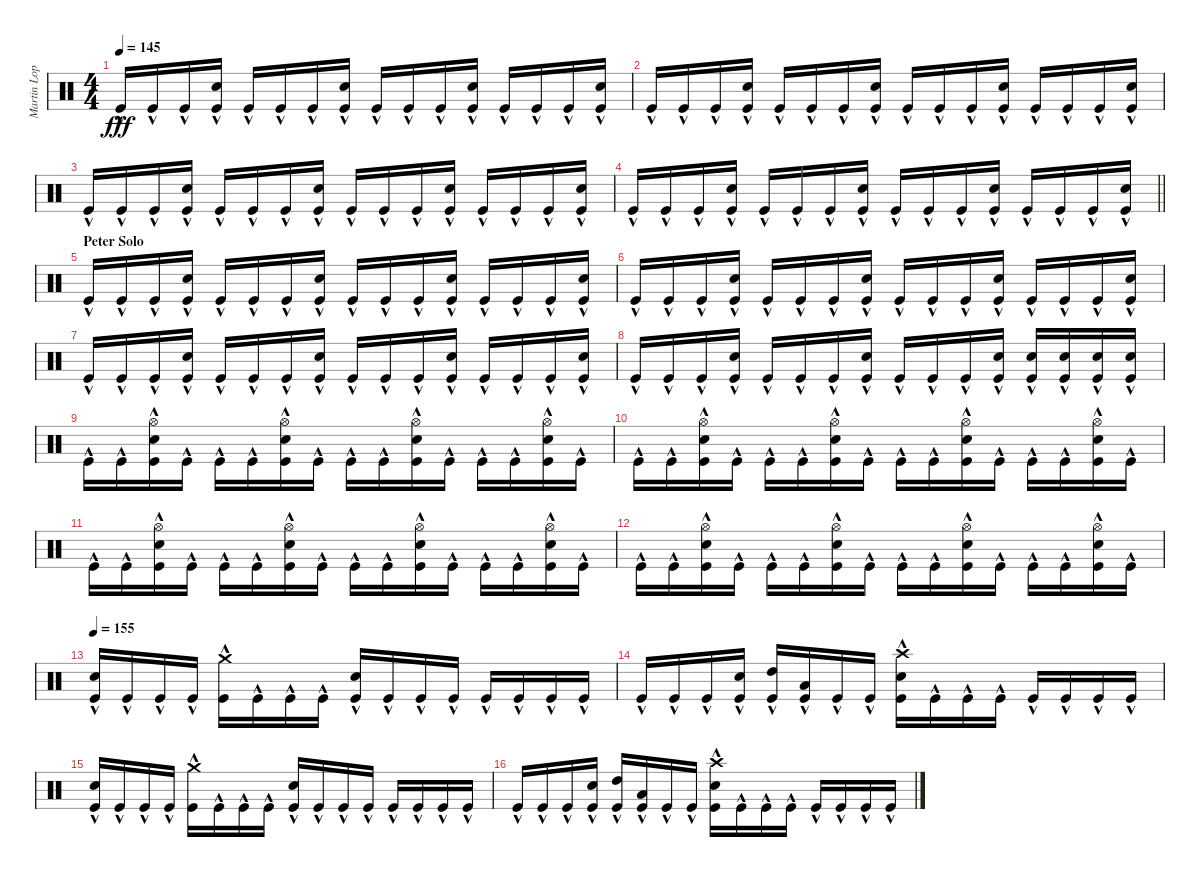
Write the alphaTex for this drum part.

\track ("Martin Lopez" "Martin Lop") {instrument percussion}
\staff {score}
\articulation defaults
\ts (4 4)
\tempo 145
\clef neutral
\ks c "Kick (hit)"{hac}.16{dy fff} "Kick (hit)"{hac}.16 "Kick (hit)"{hac}.16
("Electric Snare (hit)" "Kick (hit)"{hac}).16 "Kick (hit)"{hac}.16 "Kick (hit)"{hac}.16 "Kick (hit)"{hac}.16 ("Electric Snare (hit)" "Kick (hit)"{hac}).16 "Kick (hit)"{hac}.16 "Kick (hit)"{hac}.16 "Kick (hit)"{hac}.16 ("Electric Snare (hit)" "Kick (hit)"{hac}).16 "Kick (hit)"{hac}.16 "Kick (hit)"{hac}.16 "Kick (hit)"{hac}.16 ("Electric Snare (hit)" "Kick (hit)"{hac}).16 |
"Kick (hit)"{hac}.16 "Kick (hit)"{hac}.16 "Kick (hit)"{hac}.16 ("Electric Snare (hit)" "Kick (hit)"{hac}).16 "Kick (hit)"{hac}.16 "Kick (hit)"{hac}.16 "Kick (hit)"{hac}.16 ("Electric Snare (hit)" "Kick (hit)"{hac}).16 "Kick (hit)"{hac}.16 "Kick (hit)"{hac}.16 "Kick (hit)"{hac}.16 ("Electric Snare (hit)" "Kick (hit)"{hac}).16 "Kick (hit)"{hac}.16 "Kick (hit)"{hac}.16 "Kick (hit)"{hac}.16 ("Electric Snare (hit)" "Kick (hit)"{hac}).16 |
"Kick (hit)"{hac}.16 "Kick (hit)"{hac}.16 "Kick (hit)"{hac}.16 ("Electric Snare (hit)" "Kick (hit)"{hac}).16 "Kick (hit)"{hac}.16 "Kick (hit)"{hac}.16 "Kick (hit)"{hac}.16 ("Electric Snare (hit)" "Kick (hit)"{hac}).16 "Kick (hit)"{hac}.16 "Kick (hit)"{hac}.16 "Kick (hit)"{hac}.16 ("Electric Snare (hit)" "Kick (hit)"{hac}).16 "Kick (hit)"{hac}.16 "Kick (hit)"{hac}.16 "Kick (hit)"{hac}.16 ("Electric Snare (hit)" "Kick (hit)"{hac}).16 |
\barLineRight lightlight "Kick (hit)"{hac}.16 "Kick (hit)"{hac}.16 "Kick (hit)"{hac}.16
("Electric Snare (hit)" "Kick (hit)"{hac}).16 "Kick (hit)"{hac}.16 "Kick (hit)"{hac}.16 "Kick (hit)"{hac}.16 ("Electric Snare (hit)" "Kick (hit)"{hac}).16 "Kick (hit)"{hac}.16 "Kick (hit)"{hac}.16 "Kick (hit)"{hac}.16 ("Electric Snare (hit)" "Kick (hit)"{hac}).16 "Kick (hit)"{hac}.16 "Kick (hit)"{hac}.16 "Kick (hit)"{hac}.16 ("Electric Snare (hit)" "Kick (hit)"{hac}).16 |
\section ("" "Peter Solo")
"Kick (hit)"{hac}.16 "Kick (hit)"{hac}.16 "Kick (hit)"{hac}.16 ("Electric Snare (hit)" "Kick (hit)"{hac}).16 "Kick (hit)"{hac}.16 "Kick (hit)"{hac}.16 "Kick (hit)"{hac}.16 ("Electric Snare (hit)" "Kick (hit)"{hac}).16 "Kick (hit)"{hac}.16 "Kick (hit)"{hac}.16 "Kick (hit)"{hac}.16 ("Electric Snare (hit)" "Kick (hit)"{hac}).16 "Kick (hit)"{hac}.16 "Kick (hit)"{hac}.16 "Kick (hit)"{hac}.16 ("Electric Snare (hit)" "Kick (hit)"{hac}).16 |
"Kick (hit)"{hac}.16 "Kick (hit)"{hac}.16 "Kick (hit)"{hac}.16 ("Electric Snare (hit)" "Kick (hit)"{hac}).16 "Kick (hit)"{hac}.16 "Kick (hit)"{hac}.16 "Kick (hit)"{hac}.16 ("Electric Snare (hit)" "Kick (hit)"{hac}).16 "Kick (hit)"{hac}.16 "Kick (hit)"{hac}.16 "Kick (hit)"{hac}.16 ("Electric Snare (hit)" "Kick (hit)"{hac}).16 "Kick (hit)"{hac}.16 "Kick (hit)"{hac}.16 "Kick (hit)"{hac}.16 ("Electric Snare (hit)" "Kick (hit)"{hac}).16 |
"Kick (hit)"{hac}.16 "Kick (hit)"{hac}.16 "Kick (hit)"{hac}.16 ("Electric Snare (hit)" "Kick (hit)"{hac}).16 "Kick (hit)"{hac}.16 "Kick (hit)"{hac}.16 "Kick (hit)"{hac}.16 ("Electric Snare (hit)" "Kick (hit)"{hac}).16 "Kick (hit)"{hac}.16 "Kick (hit)"{hac}.16 "Kick (hit)"{hac}.16 ("Electric Snare (hit)" "Kick (hit)"{hac}).16 "Kick (hit)"{hac}.16 "Kick (hit)"{hac}.16 "Kick (hit)"{hac}.16 ("Electric Snare (hit)" "Kick (hit)"{hac}).16 |
"Kick (hit)"{hac}.16 "Kick (hit)"{hac}.16 "Kick (hit)"{hac}.16 ("Electric Snare (hit)" "Kick (hit)"{hac}).16 "Kick (hit)"{hac}.16 "Kick (hit)"{hac}.16 "Kick (hit)"{hac}.16 ("Electric Snare (hit)" "Kick (hit)"{hac}).16 "Kick (hit)"{hac}.16 "Kick (hit)"{hac}.16 "Kick (hit)"{hac}.16 ("Electric Snare (hit)" "Kick (hit)"{hac}).16 ("Electric Snare (hit)" "Kick (hit)"{hac}).16 ("Electric Snare (hit)" "Kick (hit)"{hac}).16 ("Electric Snare (hit)" "Kick (hit)"{hac}).16 ("Electric Snare (hit)" "Kick (hit)"{hac}).16 |
"Kick (hit)"{hac}.16 "Kick (hit)"{hac}.16 ("Hi-Hat (open)" "Electric Snare (hit)" "Kick (hit)"{hac}).16 "Kick (hit)"{hac}.16 "Kick (hit)"{hac}.16 "Kick (hit)"{hac}.16 ("Hi-Hat (open)" "Electric Snare (hit)" "Kick (hit)"{hac}).16 "Kick (hit)"{hac}.16 "Kick (hit)"{hac}.16 "Kick (hit)"{hac}.16 ("Hi-Hat (open)" "Electric Snare (hit)" "Kick (hit)"{hac}).16 "Kick (hit)"{hac}.16 "Kick (hit)"{hac}.16 "Kick (hit)"{hac}.16 ("Hi-Hat (open)" "Electric Snare (hit)" "Kick (hit)"{hac}).16 "Kick (hit)"{hac}.16 |
"Kick (hit)"{hac}.16 "Kick (hit)"{hac}.16 ("Hi-Hat (open)" "Electric Snare (hit)" "Kick (hit)"{hac}).16 "Kick (hit)"{hac}.16 "Kick (hit)"{hac}.16 "Kick (hit)"{hac}.16 ("Hi-Hat (open)" "Electric Snare (hit)" "Kick (hit)"{hac}).16 "Kick (hit)"{hac}.16 "Kick (hit)"{hac}.16 "Kick (hit)"{hac}.16 ("Hi-Hat (open)" "Electric Snare (hit)" "Kick (hit)"{hac}).16 "Kick (hit)"{hac}.16 "Kick (hit)"{hac}.16 "Kick (hit)"{hac}.16 ("Hi-Hat (open)" "Electric Snare (hit)" "Kick (hit)"{hac}).16 "Kick (hit)"{hac}.16 |
"Kick (hit)"{hac}.16 "Kick (hit)"{hac}.16 ("Hi-Hat (open)" "Electric Snare (hit)" "Kick (hit)"{hac}).16 "Kick (hit)"{hac}.16 "Kick (hit)"{hac}.16 "Kick (hit)"{hac}.16 ("Hi-Hat (open)" "Electric Snare (hit)" "Kick (hit)"{hac}).16 "Kick (hit)"{hac}.16 "Kick (hit)"{hac}.16 "Kick (hit)"{hac}.16 ("Hi-Hat (open)" "Electric Snare (hit)" "Kick (hit)"{hac}).16 "Kick (hit)"{hac}.16 "Kick (hit)"{hac}.16 "Kick (hit)"{hac}.16 ("Hi-Hat (open)" "Electric Snare (hit)" "Kick (hit)"{hac}).16 "Kick (hit)"{hac}.16 |
"Kick (hit)"{hac}.16 "Kick (hit)"{hac}.16 ("Hi-Hat (open)" "Electric Snare (hit)" "Kick (hit)"{hac}).16 "Kick (hit)"{hac}.16 "Kick (hit)"{hac}.16 "Kick (hit)"{hac}.16 ("Hi-Hat (open)" "Electric Snare (hit)" "Kick (hit)"{hac}).16 "Kick (hit)"{hac}.16 "Kick (hit)"{hac}.16 "Kick (hit)"{hac}.16 ("Hi-Hat (open)" "Electric Snare (hit)" "Kick (hit)"{hac}).16 "Kick (hit)"{hac}.16 "Kick (hit)"{hac}.16 "Kick (hit)"{hac}.16 ("Hi-Hat (open)" "Electric Snare (hit)" "Kick (hit)"{hac}).16 "Kick (hit)"{hac}.16 |
\tempo 155
("Electric Snare (hit)" "Kick (hit)"{hac}).16 "Kick (hit)"{hac}.16 "Kick (hit)"{hac}.16 "Kick (hit)"{hac}.16 ("Crash medium (hit)" "Kick (hit)"{hac}).16 "Kick (hit)"{hac}.16 "Kick (hit)"{hac}.16 "Kick (hit)"{hac}.16 ("Electric Snare (hit)" "Kick (hit)"{hac}).16 "Kick (hit)"{hac}.16 "Kick (hit)"{hac}.16 "Kick (hit)"{hac}.16 "Kick (hit)"{hac}.16 "Kick (hit)"{hac}.16 "Kick (hit)"{hac}.16 "Kick (hit)"{hac}.16 |
"Kick (hit)"{hac}.16 "Kick (hit)"{hac}.16 "Kick (hit)"{hac}.16 ("Electric Snare (hit)" "Kick (hit)"{hac}).16 ("High Tom (hit)" "Kick (hit)"{hac}).16 ("Low Tom (hit)" "Kick (hit)"{hac}).16 "Kick (hit)"{hac}.16 "Kick (hit)"{hac}.16 ("Crash high (hit)" "Electric Snare (hit)" "Kick (hit)"{hac}).16 "Kick (hit)"{hac}.16 "Kick (hit)"{hac}.16 "Kick (hit)"{hac}.16 "Kick (hit)"{hac}.16 "Kick (hit)"{hac}.16 "Kick (hit)"{hac}.16 "Kick (hit)"{hac}.16 |
("Electric Snare (hit)" "Kick (hit)"{hac}).16 "Kick (hit)"{hac}.16 "Kick (hit)"{hac}.16 "Kick (hit)"{hac}.16 ("Crash medium (hit)" "Kick (hit)"{hac}).16 "Kick (hit)"{hac}.16 "Kick (hit)"{hac}.16 "Kick (hit)"{hac}.16 ("Electric Snare (hit)" "Kick (hit)"{hac}).16 "Kick (hit)"{hac}.16 "Kick (hit)"{hac}.16 "Kick (hit)"{hac}.16 "Kick (hit)"{hac}.16 "Kick (hit)"{hac}.16 "Kick (hit)"{hac}.16 "Kick (hit)"{hac}.16 |
"Kick (hit)"{hac}.16 "Kick (hit)"{hac}.16 "Kick (hit)"{hac}.16 ("Electric Snare (hit)" "Kick (hit)"{hac}).16 ("High Tom (hit)" "Kick (hit)"{hac}).16 ("Low Tom (hit)" "Kick (hit)"{hac}).16 "Kick (hit)"{hac}.16 "Kick (hit)"{hac}.16 ("Crash high (hit)" "Electric Snare (hit)" "Kick (hit)"{hac}).16 "Kick (hit)"{hac}.16 "Kick (hit)"{hac}.16 "Kick (hit)"{hac}.16 "Kick (hit)"{hac}.16 "Kick (hit)"{hac}.16 "Kick (hit)"{hac}.16 "Kick (hit)"{hac}.16
